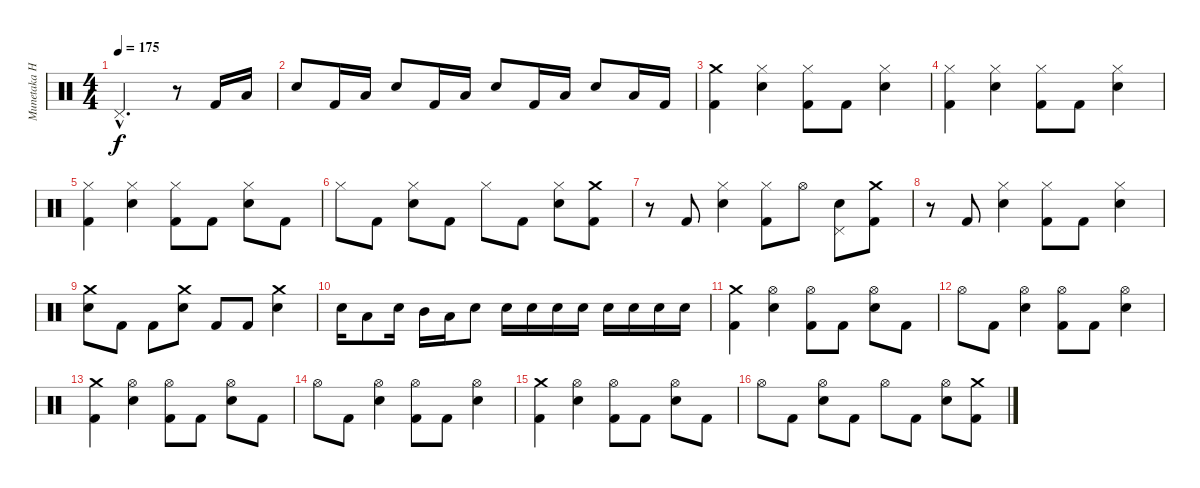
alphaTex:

\track ("Munetaka Higuchi" "Munetaka H") {instrument percussion}
\staff {score}
\articulation defaults
\ts (4 4)
\tempo 175
\clef neutral
\ks c "Pedal Hi-Hat (hit)"{hac}.2{d dy f}
r.8 "Kick (hit) 2".16 "Low Tom (hit)".16 |
"Electric Snare (hit)".8 "Kick (hit) 2".16 "Low Tom (hit)".16 "Electric Snare (hit)".8 "Kick (hit) 2".16 "Low Tom (hit)".16 "Electric Snare (hit)".8 "Kick (hit) 2".16 "Low Tom (hit)".16 "Electric Snare (hit)".8 "Low Tom (hit)".16 "Kick (hit) 2".16 |
("Crash medium (hit)" "Kick (hit) 2").4 ("Hi-Hat (closed)" "Electric Snare (hit)").4 ("Hi-Hat (closed)" "Kick (hit) 2").8 "Kick (hit) 2".8 ("Hi-Hat (closed)" "Electric Snare (hit)").4 |
("Hi-Hat (closed)" "Kick (hit) 2").4 ("Hi-Hat (closed)" "Electric Snare (hit)").4 ("Hi-Hat (closed)" "Kick (hit) 2").8 "Kick (hit) 2".8 ("Hi-Hat (closed)" "Electric Snare (hit)").4 |
("Hi-Hat (closed)" "Kick (hit) 2").4 ("Hi-Hat (closed)" "Electric Snare (hit)").4 ("Hi-Hat (closed)" "Kick (hit) 2").8 "Kick (hit) 2".8 ("Hi-Hat (closed)" "Electric Snare (hit)").8 "Kick (hit) 2".8 |
"Hi-Hat (closed)".8 "Kick (hit) 2".8 ("Hi-Hat (closed)" "Electric Snare (hit)").8 "Kick (hit) 2".8 "Hi-Hat (closed)".8 "Kick (hit) 2".8 ("Hi-Hat (closed)" "Electric Snare (hit)").8 ("Crash medium (hit)" "Kick (hit) 2").8 |
r.8 "Kick (hit) 2".8 ("Hi-Hat (closed)" "Electric Snare (hit)").4 ("Hi-Hat (closed)" "Kick (hit) 2").8 "Hi-Hat (open)".8 ("Electric Snare (hit)" "Pedal Hi-Hat (hit)").8 ("Crash medium (hit)" "Kick (hit) 2").8 |
r.8 "Kick (hit) 2".8 ("Hi-Hat (closed)" "Electric Snare (hit)").4 ("Hi-Hat (closed)" "Kick (hit) 2").8 "Kick (hit) 2".8 ("Hi-Hat (closed)" "Electric Snare (hit)").4 |
("Crash medium (hit)" "Electric Snare (hit)").8 "Kick (hit) 2".8 "Kick (hit) 2".8 ("Crash medium (hit)" "Electric Snare (hit)").8 "Kick (hit) 2".8 "Kick (hit) 2".8 ("Crash medium (hit)" "Electric Snare (hit)").4 |
"Electric Snare (hit)".16 "Low Tom (hit)".8 "Electric Snare (hit)".16 "Mid Tom (hit)".16 "Low Tom (hit)".16 "Electric Snare (hit)".8 "Electric Snare (hit)".16 "Electric Snare (hit)".16 "Electric Snare (hit)".16 "Electric Snare (hit)".16 "Electric Snare (hit)".16 "Electric Snare (hit)".16 "Electric Snare (hit)".16 "Electric Snare (hit)".16 |
("Crash medium (hit)" "Kick (hit) 2").4 ("Hi-Hat (open)" "Electric Snare (hit)").4 ("Hi-Hat (open)" "Kick (hit) 2").8 "Kick (hit) 2".8 ("Hi-Hat (open)" "Electric Snare (hit)").8 "Kick (hit) 2".8 |
"Hi-Hat (open)".8 "Kick (hit) 2".8 ("Hi-Hat (open)" "Electric Snare (hit)").4 ("Hi-Hat (open)" "Kick (hit) 2").8 "Kick (hit) 2".8 ("Hi-Hat (open)" "Electric Snare (hit)").4 |
("Crash medium (hit)" "Kick (hit) 2").4 ("Hi-Hat (open)" "Electric Snare (hit)").4 ("Hi-Hat (open)" "Kick (hit) 2").8 "Kick (hit) 2".8 ("Hi-Hat (open)" "Electric Snare (hit)").8 "Kick (hit) 2".8 |
"Hi-Hat (open)".8 "Kick (hit) 2".8 ("Hi-Hat (open)" "Electric Snare (hit)").4 ("Hi-Hat (open)" "Kick (hit) 2").8 "Kick (hit) 2".8 ("Hi-Hat (open)" "Electric Snare (hit)").4 |
("Crash medium (hit)" "Kick (hit) 2").4 ("Hi-Hat (open)" "Electric Snare (hit)").4 ("Hi-Hat (open)" "Kick (hit) 2").8 "Kick (hit) 2".8 ("Hi-Hat (open)" "Electric Snare (hit)").8 "Kick (hit) 2".8 |
"Hi-Hat (open)".8 "Kick (hit) 2".8 ("Hi-Hat (open)" "Electric Snare (hit)").8 "Kick (hit) 2".8 "Hi-Hat (open)".8 "Kick (hit) 2".8 ("Hi-Hat (open)" "Electric Snare (hit)").8 ("Crash medium (hit)" "Kick (hit) 2").8
